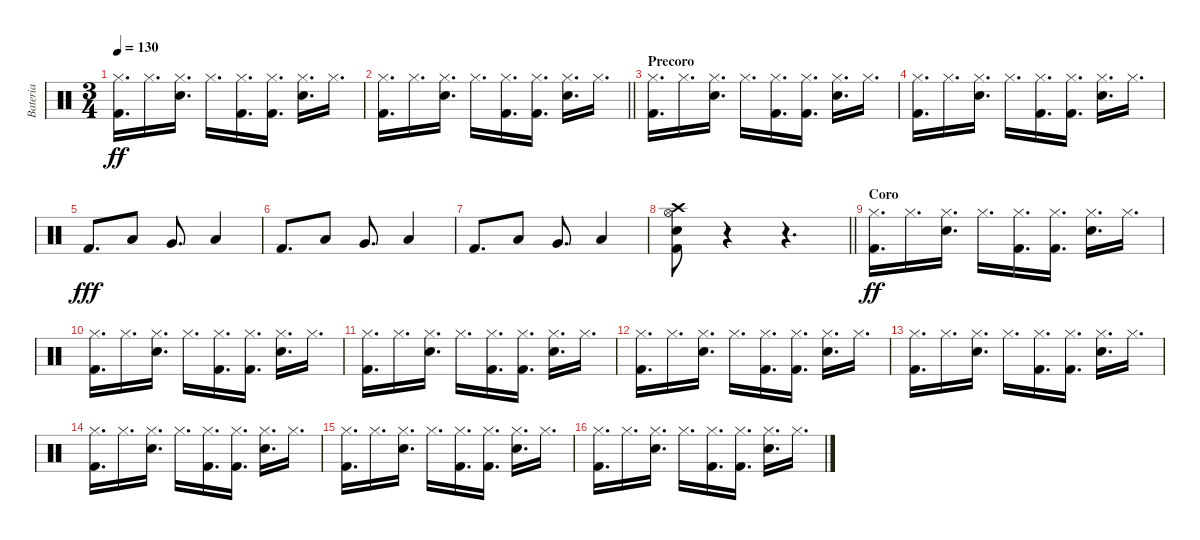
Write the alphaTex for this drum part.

\track ("Bateria" "Bateria") {instrument percussion}
\staff {score}
\articulation defaults
\ts (3 4)
\tempo 130
\clef neutral
\ks c
("Hi-Hat (closed)" "Kick (hit) 2").16{d dy ff} "Hi-Hat (closed)".16{d} ("Hi-Hat (closed)" "Snare (hit) 2").16{d} "Hi-Hat (closed)".16{d} ("Hi-Hat (closed)" "Kick (hit) 2").16{d} ("Hi-Hat (closed)" "Kick (hit) 2").16{d} ("Hi-Hat (closed)" "Snare (hit) 2").16{d} "Hi-Hat (closed)".16{d} |
\barLineRight lightlight
("Hi-Hat (closed)" "Kick (hit) 2").16{d} "Hi-Hat (closed)".16{d} ("Hi-Hat (closed)" "Snare (hit) 2").16{d} "Hi-Hat (closed)".16{d} ("Hi-Hat (closed)" "Kick (hit) 2").16{d} ("Hi-Hat (closed)" "Kick (hit) 2").16{d} ("Hi-Hat (closed)" "Snare (hit) 2").16{d} "Hi-Hat (closed)".16{d} |
\section ("" "Precoro")
("Hi-Hat (closed)" "Kick (hit) 2").16{d} "Hi-Hat (closed)".16{d} ("Hi-Hat (closed)" "Snare (hit) 2").16{d} "Hi-Hat (closed)".16{d} ("Hi-Hat (closed)" "Kick (hit) 2").16{d} ("Hi-Hat (closed)" "Kick (hit) 2").16{d} ("Hi-Hat (closed)" "Snare (hit) 2").16{d} "Hi-Hat (closed)".16{d} |
("Hi-Hat (closed)" "Kick (hit) 2").16{d} "Hi-Hat (closed)".16{d} ("Hi-Hat (closed)" "Snare (hit) 2").16{d} "Hi-Hat (closed)".16{d} ("Hi-Hat (closed)" "Kick (hit) 2").16{d} ("Hi-Hat (closed)" "Kick (hit) 2").16{d} ("Hi-Hat (closed)" "Snare (hit) 2").16{d} "Hi-Hat (closed)".16{d} |
"Kick (hit) 2".8{d dy fff} "Low Tom (hit)".8 "Very Low Tom (hit)".8{d} "Low Tom (hit)".4 |
"Kick (hit) 2".8{d} "Low Tom (hit)".8 "Very Low Tom (hit)".8{d} "Low Tom (hit)".4 |
"Kick (hit) 2".8{d} "Low Tom (hit)".8 "Very Low Tom (hit)".8{d} "Low Tom (hit)".4 |
\barLineRight lightlight
("Snare (hit) 2" "Hi-Hat (open)" "Crash high (hit)" "Kick (hit) 2").8 r.4 r.4{d} |
\section ("" "Coro")
("Hi-Hat (closed)" "Kick (hit) 2").16{d dy ff volume 13} "Hi-Hat (closed)".16{d} ("Hi-Hat (closed)" "Snare (hit) 2").16{d} "Hi-Hat (closed)".16{d} ("Hi-Hat (closed)" "Kick (hit) 2").16{d} ("Hi-Hat (closed)" "Kick (hit) 2").16{d} ("Hi-Hat (closed)" "Snare (hit) 2").16{d} "Hi-Hat (closed)".16{d} |
("Hi-Hat (closed)" "Kick (hit) 2").16{d} "Hi-Hat (closed)".16{d} ("Hi-Hat (closed)" "Snare (hit) 2").16{d} "Hi-Hat (closed)".16{d} ("Hi-Hat (closed)" "Kick (hit) 2").16{d} ("Hi-Hat (closed)" "Kick (hit) 2").16{d} ("Hi-Hat (closed)" "Snare (hit) 2").16{d} "Hi-Hat (closed)".16{d} |
("Hi-Hat (closed)" "Kick (hit) 2").16{d} "Hi-Hat (closed)".16{d} ("Hi-Hat (closed)" "Snare (hit) 2").16{d} "Hi-Hat (closed)".16{d} ("Hi-Hat (closed)" "Kick (hit) 2").16{d} ("Hi-Hat (closed)" "Kick (hit) 2").16{d} ("Hi-Hat (closed)" "Snare (hit) 2").16{d} "Hi-Hat (closed)".16{d} |
("Hi-Hat (closed)" "Kick (hit) 2").16{d} "Hi-Hat (closed)".16{d} ("Hi-Hat (closed)" "Snare (hit) 2").16{d} "Hi-Hat (closed)".16{d} ("Hi-Hat (closed)" "Kick (hit) 2").16{d} ("Hi-Hat (closed)" "Kick (hit) 2").16{d} ("Hi-Hat (closed)" "Snare (hit) 2").16{d} "Hi-Hat (closed)".16{d} |
("Hi-Hat (closed)" "Kick (hit) 2").16{d} "Hi-Hat (closed)".16{d} ("Hi-Hat (closed)" "Snare (hit) 2").16{d} "Hi-Hat (closed)".16{d} ("Hi-Hat (closed)" "Kick (hit) 2").16{d} ("Hi-Hat (closed)" "Kick (hit) 2").16{d} ("Hi-Hat (closed)" "Snare (hit) 2").16{d} "Hi-Hat (closed)".16{d} |
("Hi-Hat (closed)" "Kick (hit) 2").16{d} "Hi-Hat (closed)".16{d} ("Hi-Hat (closed)" "Snare (hit) 2").16{d} "Hi-Hat (closed)".16{d} ("Hi-Hat (closed)" "Kick (hit) 2").16{d} ("Hi-Hat (closed)" "Kick (hit) 2").16{d} ("Hi-Hat (closed)" "Snare (hit) 2").16{d} "Hi-Hat (closed)".16{d} |
("Hi-Hat (closed)" "Kick (hit) 2").16{d} "Hi-Hat (closed)".16{d} ("Hi-Hat (closed)" "Snare (hit) 2").16{d} "Hi-Hat (closed)".16{d} ("Hi-Hat (closed)" "Kick (hit) 2").16{d} ("Hi-Hat (closed)" "Kick (hit) 2").16{d} ("Hi-Hat (closed)" "Snare (hit) 2").16{d} "Hi-Hat (closed)".16{d} |
("Hi-Hat (closed)" "Kick (hit) 2").16{d} "Hi-Hat (closed)".16{d} ("Hi-Hat (closed)" "Snare (hit) 2").16{d} "Hi-Hat (closed)".16{d} ("Hi-Hat (closed)" "Kick (hit) 2").16{d} ("Hi-Hat (closed)" "Kick (hit) 2").16{d} ("Hi-Hat (closed)" "Snare (hit) 2").16{d} "Hi-Hat (closed)".16{d}
